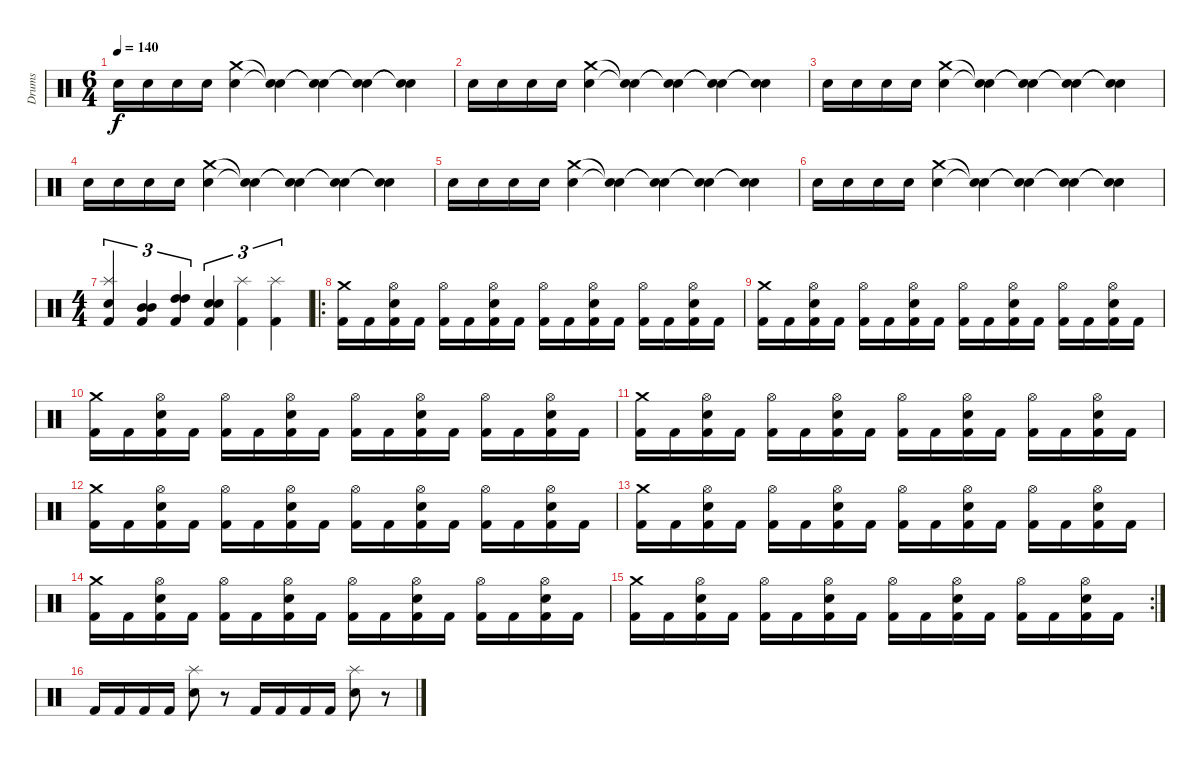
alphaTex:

\track ("Drums" "Drums") {instrument percussion}
\staff {score}
\articulation defaults
\ts (6 4)
\tempo 140
\clef neutral
\ks c "Electric Snare (hit)".16{dy f} "Electric Snare (hit)".16 "Electric Snare (hit)".16 "Electric Snare (hit)".16
("Crash medium (hit)" "Electric Snare (hit)").4 ("Snare (hit)"{t} "Snare (hit)"{t}).4 ("Snare (hit)"{t} "Snare (hit)"{t}).4 ("Snare (hit)"{t} "Snare (hit)"{t}).4 ("Snare (hit)"{t} "Snare (hit)"{t}).4 |
"Electric Snare (hit)".16 "Electric Snare (hit)".16 "Electric Snare (hit)".16 "Electric Snare (hit)".16 ("Crash medium (hit)" "Electric Snare (hit)").4 ("Snare (hit)"{t} "Snare (hit)"{t}).4 ("Snare (hit)"{t} "Snare (hit)"{t}).4 ("Snare (hit)"{t} "Snare (hit)"{t}).4 ("Snare (hit)"{t} "Snare (hit)"{t}).4 |
"Electric Snare (hit)".16 "Electric Snare (hit)".16 "Electric Snare (hit)".16 "Electric Snare (hit)".16 ("Crash medium (hit)" "Electric Snare (hit)").4 ("Snare (hit)"{t} "Snare (hit)"{t}).4 ("Snare (hit)"{t} "Snare (hit)"{t}).4 ("Snare (hit)"{t} "Snare (hit)"{t}).4 ("Snare (hit)"{t} "Snare (hit)"{t}).4 |
"Electric Snare (hit)".16 "Electric Snare (hit)".16 "Electric Snare (hit)".16 "Electric Snare (hit)".16 ("Crash medium (hit)" "Electric Snare (hit)").4 ("Snare (hit)"{t} "Snare (hit)"{t}).4 ("Snare (hit)"{t} "Snare (hit)"{t}).4 ("Snare (hit)"{t} "Snare (hit)"{t}).4 ("Snare (hit)"{t} "Snare (hit)"{t}).4 |
"Electric Snare (hit)".16 "Electric Snare (hit)".16 "Electric Snare (hit)".16 "Electric Snare (hit)".16 ("Crash medium (hit)" "Electric Snare (hit)").4 ("Snare (hit)"{t} "Snare (hit)"{t}).4 ("Snare (hit)"{t} "Snare (hit)"{t}).4 ("Snare (hit)"{t} "Snare (hit)"{t}).4 ("Snare (hit)"{t} "Snare (hit)"{t}).4 |
"Electric Snare (hit)".16 "Electric Snare (hit)".16 "Electric Snare (hit)".16 "Electric Snare (hit)".16 ("Crash medium (hit)" "Electric Snare (hit)").4 ("Snare (hit)"{t} "Snare (hit)"{t}).4 ("Snare (hit)"{t} "Snare (hit)"{t}).4 ("Snare (hit)"{t} "Snare (hit)"{t}).4 ("Snare (hit)"{t} "Snare (hit)"{t}).4 |
\ts (4 4)
("Splash (hit)" "Electric Snare (hit)" "Kick (hit) 2").4{tu (3 2)} ("Mid Tom (hit)" "Mid Tom (hit)" "Kick (hit) 2").4{tu (3 2)} ("High Tom (hit)" "High Tom (hit)" "Kick (hit) 2").4{tu (3 2)} ("Electric Snare (hit)" "Electric Snare (hit)" "Kick (hit) 2").4{tu (3 2)} ("Splash (hit)" "Kick (hit) 2").4{tu (3 2)} ("Splash (hit)" "Kick (hit) 2").4{tu (3 2)} |
\ro
("Crash medium (hit)" "Kick (hit) 2").16 "Kick (hit) 2".16 ("Hi-Hat (open)" "Electric Snare (hit)" "Kick (hit) 2").16 "Kick (hit) 2".16 ("Hi-Hat (open)" "Kick (hit) 2").16 "Kick (hit) 2".16 ("Hi-Hat (open)" "Electric Snare (hit)" "Kick (hit) 2").16 "Kick (hit) 2".16 ("Hi-Hat (open)" "Kick (hit) 2").16 "Kick (hit) 2".16 ("Hi-Hat (open)" "Electric Snare (hit)" "Kick (hit) 2").16 "Kick (hit) 2".16 ("Hi-Hat (open)" "Kick (hit) 2").16 "Kick (hit) 2".16 ("Hi-Hat (open)" "Electric Snare (hit)" "Kick (hit) 2").16 "Kick (hit) 2".16 |
("Crash medium (hit)" "Kick (hit) 2").16 "Kick (hit) 2".16 ("Hi-Hat (open)" "Electric Snare (hit)" "Kick (hit) 2").16 "Kick (hit) 2".16 ("Hi-Hat (open)" "Kick (hit) 2").16 "Kick (hit) 2".16 ("Hi-Hat (open)" "Electric Snare (hit)" "Kick (hit) 2").16 "Kick (hit) 2".16 ("Hi-Hat (open)" "Kick (hit) 2").16 "Kick (hit) 2".16 ("Hi-Hat (open)" "Electric Snare (hit)" "Kick (hit) 2").16 "Kick (hit) 2".16 ("Hi-Hat (open)" "Kick (hit) 2").16 "Kick (hit) 2".16 ("Hi-Hat (open)" "Electric Snare (hit)" "Kick (hit) 2").16 "Kick (hit) 2".16 |
("Crash medium (hit)" "Kick (hit) 2").16 "Kick (hit) 2".16 ("Hi-Hat (open)" "Electric Snare (hit)" "Kick (hit) 2").16 "Kick (hit) 2".16 ("Hi-Hat (open)" "Kick (hit) 2").16 "Kick (hit) 2".16 ("Hi-Hat (open)" "Electric Snare (hit)" "Kick (hit) 2").16 "Kick (hit) 2".16 ("Hi-Hat (open)" "Kick (hit) 2").16 "Kick (hit) 2".16 ("Hi-Hat (open)" "Electric Snare (hit)" "Kick (hit) 2").16 "Kick (hit) 2".16 ("Hi-Hat (open)" "Kick (hit) 2").16 "Kick (hit) 2".16 ("Hi-Hat (open)" "Electric Snare (hit)" "Kick (hit) 2").16 "Kick (hit) 2".16 |
("Crash medium (hit)" "Kick (hit) 2").16 "Kick (hit) 2".16 ("Hi-Hat (open)" "Electric Snare (hit)" "Kick (hit) 2").16 "Kick (hit) 2".16 ("Hi-Hat (open)" "Kick (hit) 2").16 "Kick (hit) 2".16 ("Hi-Hat (open)" "Electric Snare (hit)" "Kick (hit) 2").16 "Kick (hit) 2".16 ("Hi-Hat (open)" "Kick (hit) 2").16 "Kick (hit) 2".16 ("Hi-Hat (open)" "Electric Snare (hit)" "Kick (hit) 2").16 "Kick (hit) 2".16 ("Hi-Hat (open)" "Kick (hit) 2").16 "Kick (hit) 2".16 ("Hi-Hat (open)" "Electric Snare (hit)" "Kick (hit) 2").16 "Kick (hit) 2".16 |
("Crash medium (hit)" "Kick (hit) 2").16 "Kick (hit) 2".16 ("Hi-Hat (open)" "Electric Snare (hit)" "Kick (hit) 2").16 "Kick (hit) 2".16 ("Hi-Hat (open)" "Kick (hit) 2").16 "Kick (hit) 2".16 ("Hi-Hat (open)" "Electric Snare (hit)" "Kick (hit) 2").16 "Kick (hit) 2".16 ("Hi-Hat (open)" "Kick (hit) 2").16 "Kick (hit) 2".16 ("Hi-Hat (open)" "Electric Snare (hit)" "Kick (hit) 2").16 "Kick (hit) 2".16 ("Hi-Hat (open)" "Kick (hit) 2").16 "Kick (hit) 2".16 ("Hi-Hat (open)" "Electric Snare (hit)" "Kick (hit) 2").16 "Kick (hit) 2".16 |
("Crash medium (hit)" "Kick (hit) 2").16 "Kick (hit) 2".16 ("Hi-Hat (open)" "Electric Snare (hit)" "Kick (hit) 2").16 "Kick (hit) 2".16 ("Hi-Hat (open)" "Kick (hit) 2").16 "Kick (hit) 2".16 ("Hi-Hat (open)" "Electric Snare (hit)" "Kick (hit) 2").16 "Kick (hit) 2".16 ("Hi-Hat (open)" "Kick (hit) 2").16 "Kick (hit) 2".16 ("Hi-Hat (open)" "Electric Snare (hit)" "Kick (hit) 2").16 "Kick (hit) 2".16 ("Hi-Hat (open)" "Kick (hit) 2").16 "Kick (hit) 2".16 ("Hi-Hat (open)" "Electric Snare (hit)" "Kick (hit) 2").16 "Kick (hit) 2".16 |
("Crash medium (hit)" "Kick (hit) 2").16 "Kick (hit) 2".16 ("Hi-Hat (open)" "Electric Snare (hit)" "Kick (hit) 2").16 "Kick (hit) 2".16 ("Hi-Hat (open)" "Kick (hit) 2").16 "Kick (hit) 2".16 ("Hi-Hat (open)" "Electric Snare (hit)" "Kick (hit) 2").16 "Kick (hit) 2".16 ("Hi-Hat (open)" "Kick (hit) 2").16 "Kick (hit) 2".16 ("Hi-Hat (open)" "Electric Snare (hit)" "Kick (hit) 2").16 "Kick (hit) 2".16 ("Hi-Hat (open)" "Kick (hit) 2").16 "Kick (hit) 2".16 ("Hi-Hat (open)" "Electric Snare (hit)" "Kick (hit) 2").16 "Kick (hit) 2".16 |
\rc 2
("Crash medium (hit)" "Kick (hit) 2").16 "Kick (hit) 2".16 ("Hi-Hat (open)" "Electric Snare (hit)" "Kick (hit) 2").16 "Kick (hit) 2".16 ("Hi-Hat (open)" "Kick (hit) 2").16 "Kick (hit) 2".16 ("Hi-Hat (open)" "Electric Snare (hit)" "Kick (hit) 2").16 "Kick (hit) 2".16 ("Hi-Hat (open)" "Kick (hit) 2").16 "Kick (hit) 2".16 ("Hi-Hat (open)" "Electric Snare (hit)" "Kick (hit) 2").16 "Kick (hit) 2".16 ("Hi-Hat (open)" "Kick (hit) 2").16 "Kick (hit) 2".16 ("Hi-Hat (open)" "Electric Snare (hit)" "Kick (hit) 2").16 "Kick (hit) 2".16 |
"Kick (hit) 2".16 "Kick (hit) 2".16 "Kick (hit) 2".16 "Kick (hit) 2".16 ("Splash (hit)" "Electric Snare (hit)").8 r.8 "Kick (hit) 2".16 "Kick (hit) 2".16 "Kick (hit) 2".16 "Kick (hit) 2".16 ("Splash (hit)" "Electric Snare (hit)").8 r.8
